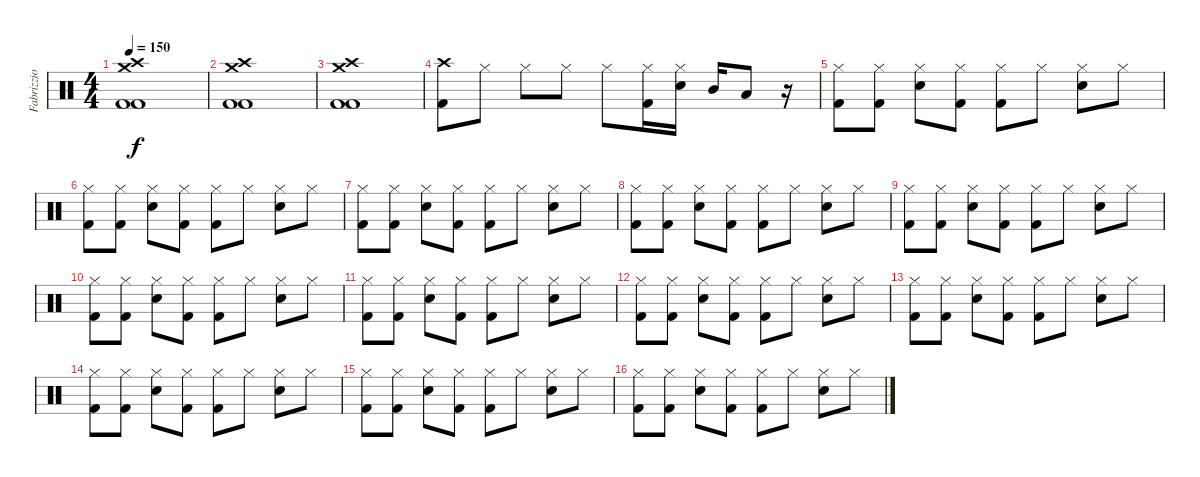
\track ("Fabrizzio" "Fabrizzio") {instrument percussion}
\staff {score}
\articulation defaults
\ts (4 4)
\tempo 150
\clef neutral
\ks c
("Crash high (hit)" "Crash medium (hit)" "Kick (hit) 2" "Kick (hit) 2").1{dy f} |
("Crash high (hit)" "Crash medium (hit)" "Kick (hit) 2" "Kick (hit) 2").1 |
("Crash high (hit)" "Crash medium (hit)" "Kick (hit) 2" "Kick (hit) 2").1 |
("Crash high (hit)" "Kick (hit) 2").8 "Hi-Hat (closed)".8 "Hi-Hat (closed)".8 "Hi-Hat (closed)".8 "Hi-Hat (closed)".8 ("Hi-Hat (closed)" "Kick (hit) 2").16 ("Hi-Hat (closed)" "Electric Snare (hit)").16 "Mid Tom (hit)".16 "Low Tom (hit)".8 r.16 |
("Hi-Hat (closed)" "Kick (hit) 2").8 ("Hi-Hat (closed)" "Kick (hit) 2").8 ("Hi-Hat (closed)" "Electric Snare (hit)").8 ("Hi-Hat (closed)" "Kick (hit) 2").8 ("Hi-Hat (closed)" "Kick (hit) 2").8 "Hi-Hat (closed)".8 ("Hi-Hat (closed)" "Electric Snare (hit)").8 "Hi-Hat (closed)".8 |
("Hi-Hat (closed)" "Kick (hit) 2").8 ("Hi-Hat (closed)" "Kick (hit) 2").8 ("Hi-Hat (closed)" "Electric Snare (hit)").8 ("Hi-Hat (closed)" "Kick (hit) 2").8 ("Hi-Hat (closed)" "Kick (hit) 2").8 "Hi-Hat (closed)".8 ("Hi-Hat (closed)" "Electric Snare (hit)").8 "Hi-Hat (closed)".8 |
("Hi-Hat (closed)" "Kick (hit) 2").8 ("Hi-Hat (closed)" "Kick (hit) 2").8 ("Hi-Hat (closed)" "Electric Snare (hit)").8 ("Hi-Hat (closed)" "Kick (hit) 2").8 ("Hi-Hat (closed)" "Kick (hit) 2").8 "Hi-Hat (closed)".8 ("Hi-Hat (closed)" "Electric Snare (hit)").8 "Hi-Hat (closed)".8 |
("Hi-Hat (closed)" "Kick (hit) 2").8 ("Hi-Hat (closed)" "Kick (hit) 2").8 ("Hi-Hat (closed)" "Electric Snare (hit)").8 ("Hi-Hat (closed)" "Kick (hit) 2").8 ("Hi-Hat (closed)" "Kick (hit) 2").8 "Hi-Hat (closed)".8 ("Hi-Hat (closed)" "Electric Snare (hit)").8 "Hi-Hat (closed)".8 |
("Hi-Hat (closed)" "Kick (hit) 2").8 ("Hi-Hat (closed)" "Kick (hit) 2").8 ("Hi-Hat (closed)" "Electric Snare (hit)").8 ("Hi-Hat (closed)" "Kick (hit) 2").8 ("Hi-Hat (closed)" "Kick (hit) 2").8 "Hi-Hat (closed)".8 ("Hi-Hat (closed)" "Electric Snare (hit)").8 "Hi-Hat (closed)".8 |
("Hi-Hat (closed)" "Kick (hit) 2").8 ("Hi-Hat (closed)" "Kick (hit) 2").8 ("Hi-Hat (closed)" "Electric Snare (hit)").8 ("Hi-Hat (closed)" "Kick (hit) 2").8 ("Hi-Hat (closed)" "Kick (hit) 2").8 "Hi-Hat (closed)".8 ("Hi-Hat (closed)" "Electric Snare (hit)").8 "Hi-Hat (closed)".8 |
("Hi-Hat (closed)" "Kick (hit) 2").8 ("Hi-Hat (closed)" "Kick (hit) 2").8 ("Hi-Hat (closed)" "Electric Snare (hit)").8 ("Hi-Hat (closed)" "Kick (hit) 2").8 ("Hi-Hat (closed)" "Kick (hit) 2").8 "Hi-Hat (closed)".8 ("Hi-Hat (closed)" "Electric Snare (hit)").8 "Hi-Hat (closed)".8 |
("Hi-Hat (closed)" "Kick (hit) 2").8 ("Hi-Hat (closed)" "Kick (hit) 2").8 ("Hi-Hat (closed)" "Electric Snare (hit)").8 ("Hi-Hat (closed)" "Kick (hit) 2").8 ("Hi-Hat (closed)" "Kick (hit) 2").8 "Hi-Hat (closed)".8 ("Hi-Hat (closed)" "Electric Snare (hit)").8 "Hi-Hat (closed)".8 |
("Hi-Hat (closed)" "Kick (hit) 2").8 ("Hi-Hat (closed)" "Kick (hit) 2").8 ("Hi-Hat (closed)" "Electric Snare (hit)").8 ("Hi-Hat (closed)" "Kick (hit) 2").8 ("Hi-Hat (closed)" "Kick (hit) 2").8 "Hi-Hat (closed)".8 ("Hi-Hat (closed)" "Electric Snare (hit)").8 "Hi-Hat (closed)".8 |
("Hi-Hat (closed)" "Kick (hit) 2").8 ("Hi-Hat (closed)" "Kick (hit) 2").8 ("Hi-Hat (closed)" "Electric Snare (hit)").8 ("Hi-Hat (closed)" "Kick (hit) 2").8 ("Hi-Hat (closed)" "Kick (hit) 2").8 "Hi-Hat (closed)".8 ("Hi-Hat (closed)" "Electric Snare (hit)").8 "Hi-Hat (closed)".8 |
("Hi-Hat (closed)" "Kick (hit) 2").8 ("Hi-Hat (closed)" "Kick (hit) 2").8 ("Hi-Hat (closed)" "Electric Snare (hit)").8 ("Hi-Hat (closed)" "Kick (hit) 2").8 ("Hi-Hat (closed)" "Kick (hit) 2").8 "Hi-Hat (closed)".8 ("Hi-Hat (closed)" "Electric Snare (hit)").8 "Hi-Hat (closed)".8 |
("Hi-Hat (closed)" "Kick (hit) 2").8 ("Hi-Hat (closed)" "Kick (hit) 2").8 ("Hi-Hat (closed)" "Electric Snare (hit)").8 ("Hi-Hat (closed)" "Kick (hit) 2").8 ("Hi-Hat (closed)" "Kick (hit) 2").8 "Hi-Hat (closed)".8 ("Hi-Hat (closed)" "Electric Snare (hit)").8 "Hi-Hat (closed)".8
